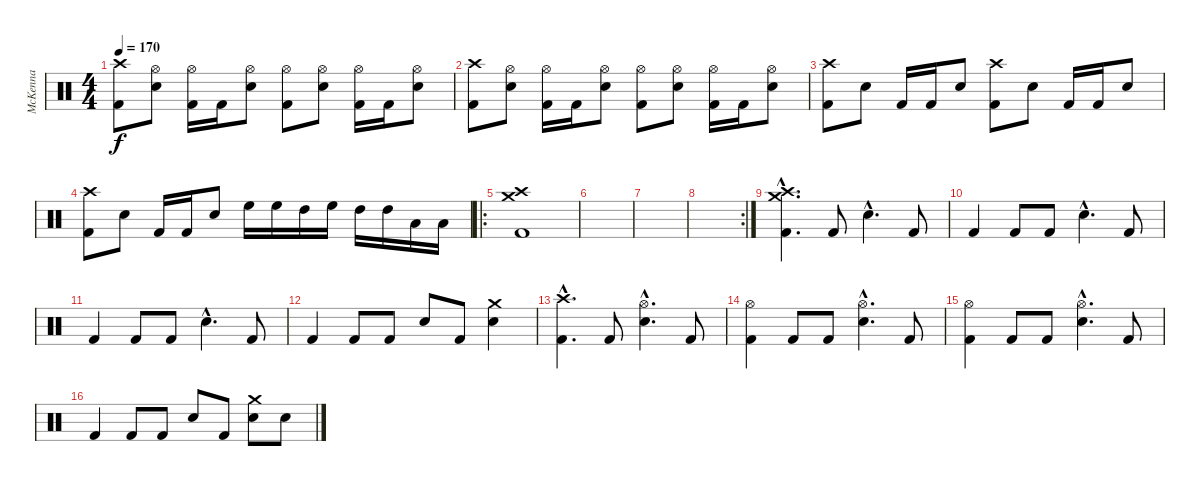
\track ("McKenna" "McKenna") {instrument percussion}
\staff {score}
\articulation defaults
\ts (4 4)
\tempo 170
\clef neutral
\ks c
("Crash high (hit)" "Kick (hit) 2").8{dy f} ("Hi-Hat (open)" "Snare (hit) 2").8 ("Hi-Hat (open)" "Kick (hit) 2").16 "Kick (hit) 2".16 ("Hi-Hat (open)" "Snare (hit) 2").8 ("Hi-Hat (open)" "Kick (hit) 2").8 ("Hi-Hat (open)" "Snare (hit) 2").8 ("Hi-Hat (open)" "Kick (hit) 2").16 "Kick (hit) 2".16 ("Hi-Hat (open)" "Snare (hit) 2").8 |
("Crash high (hit)" "Kick (hit) 2").8 ("Hi-Hat (open)" "Snare (hit) 2").8 ("Hi-Hat (open)" "Kick (hit) 2").16 "Kick (hit) 2".16 ("Hi-Hat (open)" "Snare (hit) 2").8 ("Hi-Hat (open)" "Kick (hit) 2").8 ("Hi-Hat (open)" "Snare (hit) 2").8 ("Hi-Hat (open)" "Kick (hit) 2").16 "Kick (hit) 2".16 ("Hi-Hat (open)" "Snare (hit) 2").8 |
("Crash high (hit)" "Kick (hit) 2").8 "Snare (hit) 2".8 "Kick (hit) 2".16 "Kick (hit) 2".16 "Snare (hit) 2".8 ("Crash high (hit)" "Kick (hit) 2").8 "Snare (hit) 2".8 "Kick (hit) 2".16 "Kick (hit) 2".16 "Snare (hit) 2".8 |
("Crash high (hit)" "Kick (hit) 2").8 "Snare (hit) 2".8 "Kick (hit) 2".16 "Kick (hit) 2".16 "Snare (hit) 2".8 "High Floor Tom (hit)".16 "High Floor Tom (hit)".16 "High Tom (hit)".16 "High Floor Tom (hit)".16 "High Tom (hit)".16 "High Tom (hit)".16 "Low Tom (hit)".16 "Low Tom (hit)".16 |
\ro
("Crash medium (hit)" "Crash high (hit)" "Kick (hit) 2").1 |
|
|
\rc 2
|
("Crash medium (hit)"{hac} "Crash high (hit)"{hac} "Kick (hit) 2"{hac}).4{d} "Kick (hit) 2".8 "Snare (hit) 2"{hac}.4{d} "Kick (hit) 2".8 |
"Kick (hit) 2".4 "Kick (hit) 2".8 "Kick (hit) 2".8 "Snare (hit) 2"{hac}.4{d} "Kick (hit) 2".8 |
"Kick (hit) 2".4 "Kick (hit) 2".8 "Kick (hit) 2".8 "Snare (hit) 2"{hac}.4{d} "Kick (hit) 2".8 |
"Kick (hit) 2".4 "Kick (hit) 2".8 "Kick (hit) 2".8 "Snare (hit) 2".8 "Kick (hit) 2".8 ("Crash medium (hit)" "Snare (hit) 2").4 |
("Crash high (hit)"{hac} "Kick (hit) 2"{hac}).4{d} "Kick (hit) 2".8 ("Hi-Hat (open)"{hac} "Snare (hit) 2"{hac}).4{d} "Kick (hit) 2".8 |
("Hi-Hat (open)" "Kick (hit) 2").4 "Kick (hit) 2".8 "Kick (hit) 2".8 ("Hi-Hat (open)"{hac} "Snare (hit) 2"{hac}).4{d} "Kick (hit) 2".8 |
("Hi-Hat (open)" "Kick (hit) 2").4 "Kick (hit) 2".8 "Kick (hit) 2".8 ("Hi-Hat (open)"{hac} "Snare (hit) 2"{hac}).4{d} "Kick (hit) 2".8 |
"Kick (hit) 2".4 "Kick (hit) 2".8 "Kick (hit) 2".8 "Snare (hit) 2".8 "Kick (hit) 2".8 ("Crash medium (hit)" "Snare (hit) 2").8 "Snare (hit) 2".8
